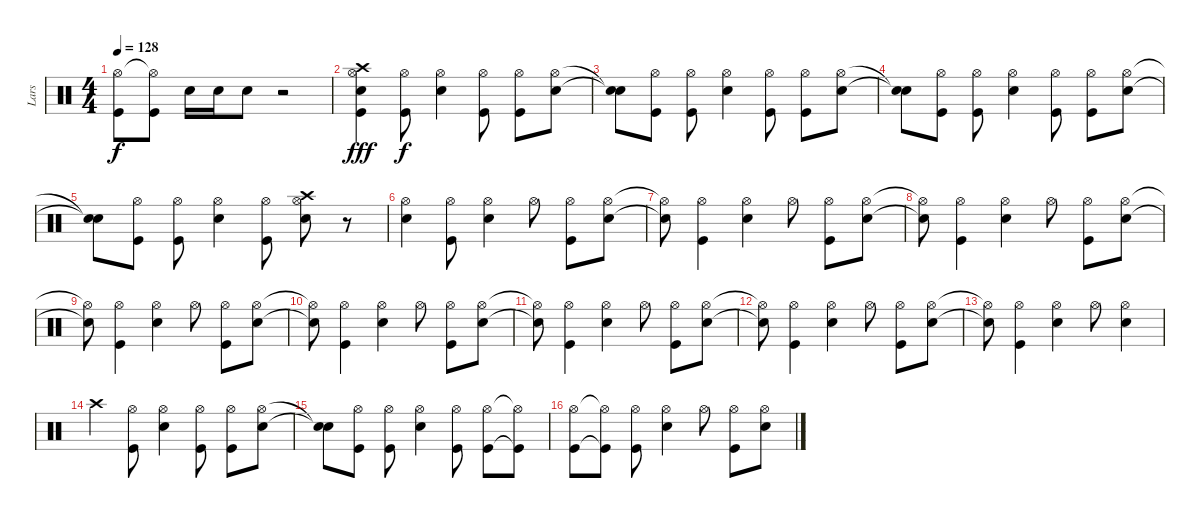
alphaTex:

\track ("Lars" "Lars") {instrument percussion}
\staff {score}
\articulation defaults
\ts (4 4)
\tempo 128
\clef neutral
\ks c
("Hi-Hat (open)" "Kick (hit)").8{dy f} ("Hi-Hat (open)"{t} "Kick (hit)").8 "Snare (hit) 2".16 "Snare (hit) 2".16 "Snare (hit) 2".8 r.2 |
("Crash high (hit)" "Hi-Hat (open)" "Snare (hit) 2" "Kick (hit)").4{dy fff} ("Hi-Hat (open)" "Kick (hit)").8{dy f} ("Hi-Hat (open)" "Snare (hit) 2").4 ("Hi-Hat (open)" "Kick (hit)").8 ("Hi-Hat (open)" "Kick (hit)").8 ("Hi-Hat (open)" "Snare (hit) 2").8 |
("Snare (hit)"{t} "Snare (hit)"{t}).8 ("Hi-Hat (open)" "Kick (hit)").8 ("Hi-Hat (open)" "Kick (hit)").8 ("Hi-Hat (open)" "Snare (hit) 2").4 ("Hi-Hat (open)" "Kick (hit)").8 ("Hi-Hat (open)" "Kick (hit)").8 ("Hi-Hat (open)" "Snare (hit) 2").8 |
("Snare (hit)"{t} "Snare (hit)"{t}).8 ("Hi-Hat (open)" "Kick (hit)").8 ("Hi-Hat (open)" "Kick (hit)").8 ("Hi-Hat (open)" "Snare (hit) 2").4 ("Hi-Hat (open)" "Kick (hit)").8 ("Hi-Hat (open)" "Kick (hit)").8 ("Hi-Hat (open)" "Snare (hit) 2").8 |
("Snare (hit)"{t} "Snare (hit)"{t}).8 ("Hi-Hat (open)" "Kick (hit)").8 ("Hi-Hat (open)" "Kick (hit)").8 ("Hi-Hat (open)" "Snare (hit) 2").4 ("Hi-Hat (open)" "Kick (hit)").8 ("Crash high (hit)" "Hi-Hat (open)" "Snare (hit) 2").8 r.8 |
("Hi-Hat (open)" "Snare (hit) 2").4 ("Hi-Hat (open)" "Kick (hit)").8 ("Hi-Hat (open)" "Snare (hit) 2").4 "Hi-Hat (open)".8 ("Hi-Hat (open)" "Kick (hit)").8 ("Hi-Hat (open)" "Snare (hit) 2").8 |
("Hi-Hat (open)"{t} "Snare (hit) 2"{t}).8 ("Hi-Hat (open)" "Kick (hit)").4 ("Hi-Hat (open)" "Snare (hit) 2").4 "Hi-Hat (open)".8 ("Hi-Hat (open)" "Kick (hit)").8 ("Hi-Hat (open)" "Snare (hit) 2").8 |
("Hi-Hat (open)"{t} "Snare (hit) 2"{t}).8 ("Hi-Hat (open)" "Kick (hit)").4 ("Hi-Hat (open)" "Snare (hit) 2").4 "Hi-Hat (open)".8 ("Hi-Hat (open)" "Kick (hit)").8 ("Hi-Hat (open)" "Snare (hit) 2").8 |
("Hi-Hat (open)"{t} "Snare (hit) 2"{t}).8 ("Hi-Hat (open)" "Kick (hit)").4 ("Hi-Hat (open)" "Snare (hit) 2").4 "Hi-Hat (open)".8 ("Hi-Hat (open)" "Kick (hit)").8 ("Hi-Hat (open)" "Snare (hit) 2").8 |
("Hi-Hat (open)"{t} "Snare (hit) 2"{t}).8 ("Hi-Hat (open)" "Kick (hit)").4 ("Hi-Hat (open)" "Snare (hit) 2").4 "Hi-Hat (open)".8 ("Hi-Hat (open)" "Kick (hit)").8 ("Hi-Hat (open)" "Snare (hit) 2").8 |
("Hi-Hat (open)"{t} "Snare (hit) 2"{t}).8 ("Hi-Hat (open)" "Kick (hit)").4 ("Hi-Hat (open)" "Snare (hit) 2").4 "Hi-Hat (open)".8 ("Hi-Hat (open)" "Kick (hit)").8 ("Hi-Hat (open)" "Snare (hit) 2").8 |
("Hi-Hat (open)"{t} "Snare (hit) 2"{t}).8 ("Hi-Hat (open)" "Kick (hit)").4 ("Hi-Hat (open)" "Snare (hit) 2").4 "Hi-Hat (open)".8 ("Hi-Hat (open)" "Kick (hit)").8 ("Hi-Hat (open)" "Snare (hit) 2").8 |
("Hi-Hat (open)"{t} "Snare (hit) 2"{t}).8 ("Hi-Hat (open)" "Kick (hit)").4 ("Hi-Hat (open)" "Snare (hit) 2").4 "Hi-Hat (open)".8 ("Hi-Hat (open)" "Snare (hit) 2").4 |
"Crash high (hit)".4 ("Hi-Hat (open)" "Kick (hit)").8 ("Hi-Hat (open)" "Snare (hit) 2").4 ("Hi-Hat (open)" "Kick (hit)").8 ("Hi-Hat (open)" "Kick (hit)").8 ("Hi-Hat (open)" "Snare (hit) 2").8 |
("Snare (hit)"{t} "Snare (hit)"{t}).8 ("Hi-Hat (open)" "Kick (hit)").8 ("Hi-Hat (open)" "Kick (hit)").8 ("Hi-Hat (open)" "Snare (hit) 2").4 ("Hi-Hat (open)" "Kick (hit)").8 ("Hi-Hat (open)" "Kick (hit)").8 ("Hi-Hat (open)"{t} "Kick (hit)"{t}).8 |
("Hi-Hat (open)" "Kick (hit)").8 ("Hi-Hat (open)"{t} "Kick (hit)"{t}).8 ("Hi-Hat (open)" "Kick (hit)").8 ("Hi-Hat (open)" "Snare (hit) 2").4 "Hi-Hat (open)".8 ("Hi-Hat (open)" "Kick (hit)").8 ("Hi-Hat (open)" "Snare (hit) 2").8
